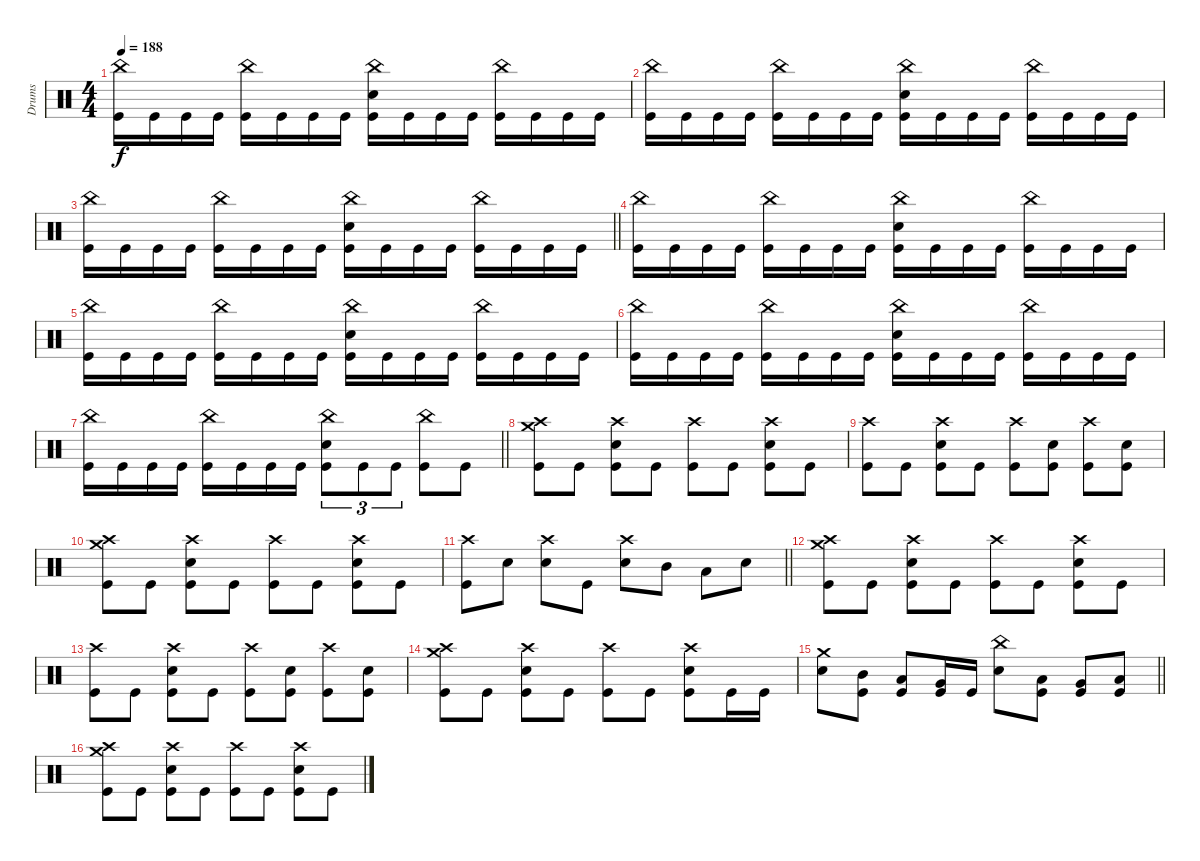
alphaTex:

\track ("Drums" "Drums") {instrument percussion}
\staff
\articulation defaults
\ts (4 4)
\tempo 188
\clef neutral
\ks c
("China (hit)" "Kick (hit)").16{dy f} "Kick (hit)".16 "Kick (hit)".16 "Kick (hit)".16 ("China (hit)" "Kick (hit)").16 "Kick (hit)".16 "Kick (hit)".16 "Kick (hit)".16 ("China (hit)" "Electric Snare (hit)" "Kick (hit)").16 "Kick (hit)".16 "Kick (hit)".16 "Kick (hit)".16 ("China (hit)" "Kick (hit)").16 "Kick (hit)".16 "Kick (hit)".16 "Kick (hit)".16 |
("China (hit)" "Kick (hit)").16 "Kick (hit)".16 "Kick (hit)".16 "Kick (hit)".16 ("China (hit)" "Kick (hit)").16 "Kick (hit)".16 "Kick (hit)".16 "Kick (hit)".16 ("China (hit)" "Electric Snare (hit)" "Kick (hit)").16 "Kick (hit)".16 "Kick (hit)".16 "Kick (hit)".16 ("China (hit)" "Kick (hit)").16 "Kick (hit)".16 "Kick (hit)".16 "Kick (hit)".16 |
\barLineRight lightlight
("China (hit)" "Kick (hit)").16 "Kick (hit)".16 "Kick (hit)".16 "Kick (hit)".16 ("China (hit)" "Kick (hit)").16 "Kick (hit)".16 "Kick (hit)".16 "Kick (hit)".16 ("China (hit)" "Electric Snare (hit)" "Kick (hit)").16 "Kick (hit)".16 "Kick (hit)".16 "Kick (hit)".16 ("China (hit)" "Kick (hit)").16 "Kick (hit)".16 "Kick (hit)".16 "Kick (hit)".16 |
("China (hit)" "Kick (hit)").16 "Kick (hit)".16 "Kick (hit)".16 "Kick (hit)".16 ("China (hit)" "Kick (hit)").16 "Kick (hit)".16 "Kick (hit)".16 "Kick (hit)".16 ("China (hit)" "Electric Snare (hit)" "Kick (hit)").16 "Kick (hit)".16 "Kick (hit)".16 "Kick (hit)".16 ("China (hit)" "Kick (hit)").16 "Kick (hit)".16 "Kick (hit)".16 "Kick (hit)".16 |
("China (hit)" "Kick (hit)").16 "Kick (hit)".16 "Kick (hit)".16 "Kick (hit)".16 ("China (hit)" "Kick (hit)").16 "Kick (hit)".16 "Kick (hit)".16 "Kick (hit)".16 ("China (hit)" "Electric Snare (hit)" "Kick (hit)").16 "Kick (hit)".16 "Kick (hit)".16 "Kick (hit)".16 ("China (hit)" "Kick (hit)").16 "Kick (hit)".16 "Kick (hit)".16 "Kick (hit)".16 |
("China (hit)" "Kick (hit)").16 "Kick (hit)".16 "Kick (hit)".16 "Kick (hit)".16 ("China (hit)" "Kick (hit)").16 "Kick (hit)".16 "Kick (hit)".16 "Kick (hit)".16 ("China (hit)" "Electric Snare (hit)" "Kick (hit)").16 "Kick (hit)".16 "Kick (hit)".16 "Kick (hit)".16 ("China (hit)" "Kick (hit)").16 "Kick (hit)".16 "Kick (hit)".16 "Kick (hit)".16 |
\barLineRight lightlight
("China (hit)" "Kick (hit)").16 "Kick (hit)".16 "Kick (hit)".16 "Kick (hit)".16 ("China (hit)" "Kick (hit)").16 "Kick (hit)".16 "Kick (hit)".16 "Kick (hit)".16 ("China (hit)" "Electric Snare (hit)" "Kick (hit)").8{tu (3 2)} "Kick (hit)".8{tu (3 2)} "Kick (hit)".8{tu (3 2)} ("China (hit)" "Kick (hit)").8 "Kick (hit)".8 |
\section ("" "")
("Crash high (hit)" "Crash medium (hit)" "Kick (hit)").8 "Kick (hit)".8 ("Crash high (hit)" "Electric Snare (hit)" "Kick (hit)").8 "Kick (hit)".8 ("Crash high (hit)" "Kick (hit)").8 "Kick (hit)".8 ("Crash high (hit)" "Electric Snare (hit)" "Kick (hit)").8 "Kick (hit)".8 |
("Crash high (hit)" "Kick (hit)").8 "Kick (hit)".8 ("Crash high (hit)" "Electric Snare (hit)" "Kick (hit)").8 "Kick (hit)".8 ("Crash high (hit)" "Kick (hit)").8 ("Electric Snare (hit)" "Kick (hit)").8 ("Crash high (hit)" "Kick (hit)").8 ("Electric Snare (hit)" "Kick (hit)").8 |
("Crash high (hit)" "Crash medium (hit)" "Kick (hit)").8 "Kick (hit)".8 ("Crash high (hit)" "Electric Snare (hit)" "Kick (hit)").8 "Kick (hit)".8 ("Crash high (hit)" "Kick (hit)").8 "Kick (hit)".8 ("Crash high (hit)" "Electric Snare (hit)" "Kick (hit)").8 "Kick (hit)".8 |
\barLineRight lightlight
("Crash high (hit)" "Kick (hit)").8 "Electric Snare (hit)".8 ("Crash high (hit)" "Electric Snare (hit)").8 "Kick (hit)".8 ("Crash high (hit)" "Electric Snare (hit)").8 "Mid Tom (hit)".8 "Low Tom (hit)".8 "Electric Snare (hit)".8 |
("Crash high (hit)" "Crash medium (hit)" "Kick (hit)").8 "Kick (hit)".8 ("Crash high (hit)" "Electric Snare (hit)" "Kick (hit)").8 "Kick (hit)".8 ("Crash high (hit)" "Kick (hit)").8 "Kick (hit)".8 ("Crash high (hit)" "Electric Snare (hit)" "Kick (hit)").8 "Kick (hit)".8 |
("Crash high (hit)" "Kick (hit)").8 "Kick (hit)".8 ("Crash high (hit)" "Electric Snare (hit)" "Kick (hit)").8 "Kick (hit)".8 ("Crash high (hit)" "Kick (hit)").8 ("Electric Snare (hit)" "Kick (hit)").8 ("Crash high (hit)" "Kick (hit)").8 ("Electric Snare (hit)" "Kick (hit)").8 |
("Crash high (hit)" "Crash medium (hit)" "Kick (hit)").8 "Kick (hit)".8 ("Crash high (hit)" "Electric Snare (hit)" "Kick (hit)").8 "Kick (hit)".8 ("Crash high (hit)" "Kick (hit)").8 "Kick (hit)".8 ("Crash high (hit)" "Electric Snare (hit)" "Kick (hit)").8 "Kick (hit)".16 "Kick (hit)".16 |
\barLineRight lightlight
("Crash medium (hit)" "Electric Snare (hit)").8 ("Mid Tom (hit)" "Kick (hit)").8 ("Low Tom (hit)" "Kick (hit)").8 ("Very Low Tom (hit)" "Kick (hit)").16 "Kick (hit)".16 ("China (hit)" "Electric Snare (hit)").8 ("Low Tom (hit)" "Kick (hit)").8 ("Very Low Tom (hit)" "Kick (hit)").8 ("Low Floor Tom (hit)" "Kick (hit)").8 |
("Crash high (hit)" "Crash medium (hit)" "Kick (hit)").8 "Kick (hit)".8 ("Crash high (hit)" "Electric Snare (hit)" "Kick (hit)").8 "Kick (hit)".8 ("Crash high (hit)" "Kick (hit)").8 "Kick (hit)".8 ("Crash high (hit)" "Electric Snare (hit)" "Kick (hit)").8 "Kick (hit)".8
